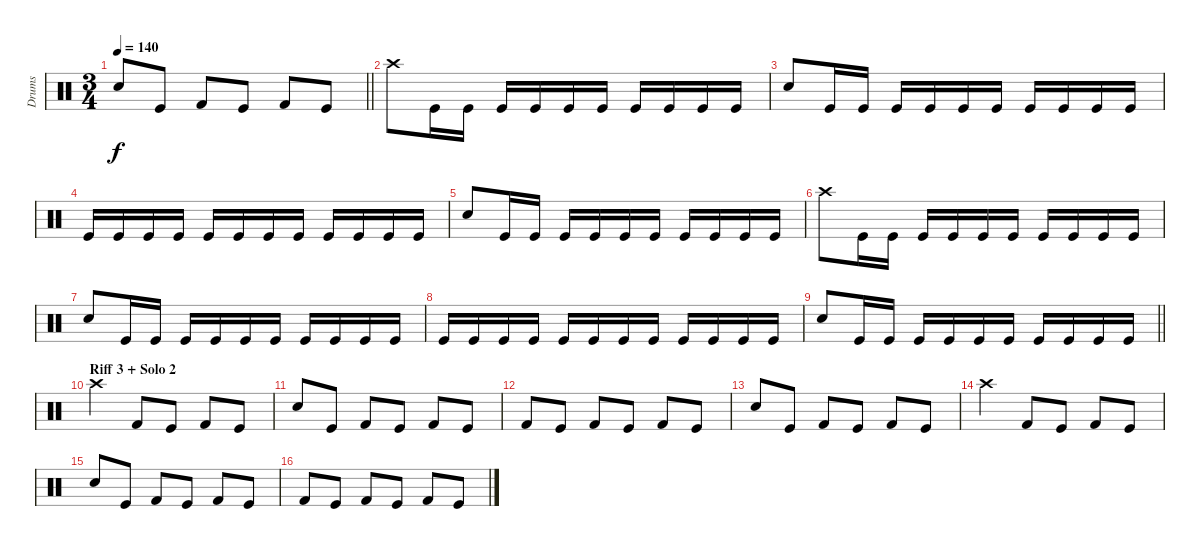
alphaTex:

\track ("Drums" "Drums") {instrument percussion}
\staff {score}
\articulation defaults
\ts (3 4)
\tempo 140
\clef neutral
\barLineRight lightlight
\ks c "Snare (hit) 2".8{dy f} "Kick (hit)".8 "Kick (hit) 2".8 "Kick (hit)".8 "Kick (hit) 2".8 "Kick (hit)".8
|
"Crash high (hit)".8 "Kick (hit)".16 "Kick (hit)".16 "Kick (hit)".16 "Kick (hit)".16 "Kick (hit)".16 "Kick (hit)".16 "Kick (hit)".16 "Kick (hit)".16 "Kick (hit)".16 "Kick (hit)".16 |
"Snare (hit) 2".8 "Kick (hit)".16 "Kick (hit)".16 "Kick (hit)".16 "Kick (hit)".16 "Kick (hit)".16 "Kick (hit)".16 "Kick (hit)".16 "Kick (hit)".16 "Kick (hit)".16 "Kick (hit)".16 |
"Kick (hit)".16 "Kick (hit)".16 "Kick (hit)".16 "Kick (hit)".16 "Kick (hit)".16 "Kick (hit)".16 "Kick (hit)".16 "Kick (hit)".16 "Kick (hit)".16 "Kick (hit)".16 "Kick (hit)".16 "Kick (hit)".16 |
"Snare (hit) 2".8 "Kick (hit)".16 "Kick (hit)".16 "Kick (hit)".16 "Kick (hit)".16 "Kick (hit)".16 "Kick (hit)".16 "Kick (hit)".16 "Kick (hit)".16 "Kick (hit)".16 "Kick (hit)".16 |
"Crash high (hit)".8 "Kick (hit)".16 "Kick (hit)".16 "Kick (hit)".16 "Kick (hit)".16 "Kick (hit)".16 "Kick (hit)".16 "Kick (hit)".16 "Kick (hit)".16 "Kick (hit)".16 "Kick (hit)".16 |
"Snare (hit) 2".8 "Kick (hit)".16 "Kick (hit)".16 "Kick (hit)".16 "Kick (hit)".16 "Kick (hit)".16 "Kick (hit)".16 "Kick (hit)".16 "Kick (hit)".16 "Kick (hit)".16 "Kick (hit)".16 |
"Kick (hit)".16 "Kick (hit)".16 "Kick (hit)".16 "Kick (hit)".16 "Kick (hit)".16 "Kick (hit)".16 "Kick (hit)".16 "Kick (hit)".16 "Kick (hit)".16 "Kick (hit)".16 "Kick (hit)".16 "Kick (hit)".16 |
\barLineRight lightlight "Snare (hit) 2".8 "Kick (hit)".16 "Kick (hit)".16 "Kick (hit)".16 "Kick (hit)".16 "Kick (hit)".16 "Kick (hit)".16 "Kick (hit)".16 "Kick (hit)".16 "Kick (hit)".16 "Kick (hit)".16
|
\section ("" "Riff 3 + Solo 2")
"Crash high (hit)".4 "Kick (hit) 2".8 "Kick (hit)".8 "Kick (hit) 2".8 "Kick (hit)".8 |
"Snare (hit) 2".8 "Kick (hit)".8 "Kick (hit) 2".8 "Kick (hit)".8 "Kick (hit) 2".8 "Kick (hit)".8 |
"Kick (hit) 2".8 "Kick (hit)".8 "Kick (hit) 2".8 "Kick (hit)".8 "Kick (hit) 2".8 "Kick (hit)".8 |
"Snare (hit) 2".8 "Kick (hit)".8 "Kick (hit) 2".8 "Kick (hit)".8 "Kick (hit) 2".8 "Kick (hit)".8 |
"Crash high (hit)".4 "Kick (hit) 2".8 "Kick (hit)".8 "Kick (hit) 2".8 "Kick (hit)".8 |
"Snare (hit) 2".8 "Kick (hit)".8 "Kick (hit) 2".8 "Kick (hit)".8 "Kick (hit) 2".8 "Kick (hit)".8 |
"Kick (hit) 2".8 "Kick (hit)".8 "Kick (hit) 2".8 "Kick (hit)".8 "Kick (hit) 2".8 "Kick (hit)".8
